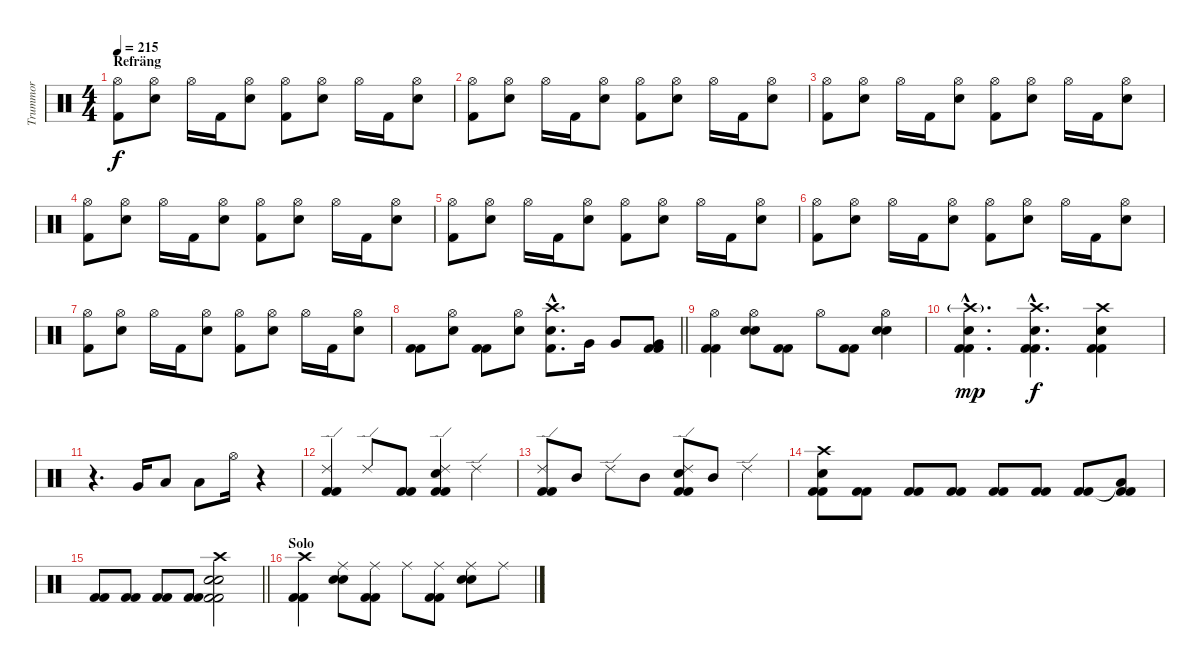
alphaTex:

\track ("Trummor" "Trummor") {instrument percussion}
\staff {score}
\articulation defaults
\ts (4 4)
\section ("" "Refräng")
\tempo 215
\clef neutral
\ks c
("Hi-Hat (open)" "Kick (hit) 2").8{dy f} ("Hi-Hat (open)" "Electric Snare (hit)").8 "Hi-Hat (open)".16 "Kick (hit) 2".16 ("Hi-Hat (open)" "Electric Snare (hit)").8 ("Hi-Hat (open)" "Kick (hit) 2").8 ("Hi-Hat (open)" "Electric Snare (hit)").8 "Hi-Hat (open)".16 "Kick (hit) 2".16 ("Hi-Hat (open)" "Electric Snare (hit)").8 |
("Hi-Hat (open)" "Kick (hit) 2").8 ("Hi-Hat (open)" "Electric Snare (hit)").8 "Hi-Hat (open)".16 "Kick (hit) 2".16 ("Hi-Hat (open)" "Electric Snare (hit)").8 ("Hi-Hat (open)" "Kick (hit) 2").8 ("Hi-Hat (open)" "Electric Snare (hit)").8 "Hi-Hat (open)".16 "Kick (hit) 2".16 ("Hi-Hat (open)" "Electric Snare (hit)").8 |
("Hi-Hat (open)" "Kick (hit) 2").8 ("Hi-Hat (open)" "Electric Snare (hit)").8 "Hi-Hat (open)".16 "Kick (hit) 2".16 ("Hi-Hat (open)" "Electric Snare (hit)").8 ("Hi-Hat (open)" "Kick (hit) 2").8 ("Hi-Hat (open)" "Electric Snare (hit)").8 "Hi-Hat (open)".16 "Kick (hit) 2".16 ("Hi-Hat (open)" "Electric Snare (hit)").8 |
("Hi-Hat (open)" "Kick (hit) 2").8 ("Hi-Hat (open)" "Electric Snare (hit)").8 "Hi-Hat (open)".16 "Kick (hit) 2".16 ("Hi-Hat (open)" "Electric Snare (hit)").8 ("Hi-Hat (open)" "Kick (hit) 2").8 ("Hi-Hat (open)" "Electric Snare (hit)").8 "Hi-Hat (open)".16 "Kick (hit) 2".16 ("Hi-Hat (open)" "Electric Snare (hit)").8 |
("Hi-Hat (open)" "Kick (hit) 2").8 ("Hi-Hat (open)" "Electric Snare (hit)").8 "Hi-Hat (open)".16 "Kick (hit) 2".16 ("Hi-Hat (open)" "Electric Snare (hit)").8 ("Hi-Hat (open)" "Kick (hit) 2").8 ("Hi-Hat (open)" "Electric Snare (hit)").8 "Hi-Hat (open)".16 "Kick (hit) 2".16 ("Hi-Hat (open)" "Electric Snare (hit)").8 |
("Hi-Hat (open)" "Kick (hit) 2").8 ("Hi-Hat (open)" "Electric Snare (hit)").8 "Hi-Hat (open)".16 "Kick (hit) 2".16 ("Hi-Hat (open)" "Electric Snare (hit)").8 ("Hi-Hat (open)" "Kick (hit) 2").8 ("Hi-Hat (open)" "Electric Snare (hit)").8 "Hi-Hat (open)".16 "Kick (hit) 2".16 ("Hi-Hat (open)" "Electric Snare (hit)").8 |
("Hi-Hat (open)" "Kick (hit) 2").8 ("Hi-Hat (open)" "Electric Snare (hit)").8 "Hi-Hat (open)".16 "Kick (hit) 2".16 ("Hi-Hat (open)" "Electric Snare (hit)").8 ("Hi-Hat (open)" "Kick (hit) 2").8 ("Hi-Hat (open)" "Electric Snare (hit)").8 "Hi-Hat (open)".16 "Kick (hit) 2".16 ("Hi-Hat (open)" "Electric Snare (hit)").8 |
\barLineRight lightlight
("Kick (hit) 2" "Kick (hit) 2").8 ("Hi-Hat (open)" "Electric Snare (hit)").8 ("Kick (hit) 2" "Kick (hit) 2").8 ("Hi-Hat (open)" "Electric Snare (hit)").8 ("Crash high (hit)"{hac} "Electric Snare (hit)"{hac} "Kick (hit) 2"{hac}).8{d} "Very Low Tom (hit)".16 "Very Low Tom (hit)".8 ("Very Low Tom (hit)" "Kick (hit) 2" "Kick (hit) 2").8 |
\section ("" "")
("Hi-Hat (open)" "Kick (hit) 2" "Kick (hit) 2").4 ("Hi-Hat (open)" "Electric Snare (hit)" "Electric Snare (hit)").8 ("Kick (hit) 2" "Kick (hit) 2").8 "Hi-Hat (open)".8 ("Kick (hit) 2" "Kick (hit) 2").8 ("Hi-Hat (open)" "Electric Snare (hit)" "Electric Snare (hit)").4 |
("Crash high (hit)"{g hac} "Electric Snare (hit)"{hac} "Kick (hit) 2"{hac} "Kick (hit) 2"{hac}).4{d dy mp} ("Crash high (hit)"{hac pm} "Electric Snare (hit)"{hac} "Kick (hit) 2"{hac} "Kick (hit) 2"{hac}).4{d dy f} ("Crash high (hit)" "Electric Snare (hit)" "Kick (hit) 2" "Kick (hit) 2").4 |
r.4{d} "Very Low Tom (hit)".16 "Low Floor Tom (hit)".8 "Low Tom (hit)".8 "Hi-Hat (open)".16 r.4 |
("Ride (edge) 2" "Kick (hit) 2" "Kick (hit) 2").4 "Ride (edge) 2".8 ("Kick (hit) 2" "Kick (hit) 2").8 ("Ride (edge) 2" "Electric Snare (hit)" "Kick (hit) 2" "Kick (hit) 2").4 "Ride (edge) 2".4 |
("Ride (edge) 2" "Kick (hit) 2" "Kick (hit) 2").8 "Mid Tom (hit)".8 "Ride (edge) 2".8 "Mid Tom (hit)".8 ("Ride (edge) 2" "Electric Snare (hit)" "Kick (hit) 2" "Kick (hit) 2").8 "Mid Tom (hit)".8 "Ride (edge) 2".4 |
("Crash high (hit)" "Electric Snare (hit)" "Kick (hit) 2" "Kick (hit) 2").8 ("Kick (hit) 2" "Kick (hit) 2").8{volume 5} ("Kick (hit) 2" "Kick (hit) 2").8{volume 6} ("Kick (hit) 2" "Kick (hit) 2").8{volume 7} ("Kick (hit) 2" "Kick (hit) 2").8{volume 8} ("Kick (hit) 2" "Kick (hit) 2").8{volume 9} ("Kick (hit) 2" "Kick (hit) 2").8{volume 10} ("Low Tom (hit)"{t} "Kick (hit) 2" "Kick (hit) 2").8 |
\barLineRight lightlight
("Kick (hit) 2" "Kick (hit) 2").8 ("Kick (hit) 2" "Kick (hit) 2").8 ("Kick (hit) 2" "Kick (hit) 2").8 ("Kick (hit) 2" "Kick (hit) 2").8 ("Crash high (hit)" "Electric Snare (hit)" "Electric Snare (hit)" "Kick (hit) 2" "Kick (hit) 2").2 |
\section ("" "Solo")
("Crash high (hit)" "Kick (hit) 2" "Kick (hit) 2").4 ("Ride (middle)" "Electric Snare (hit)" "Electric Snare (hit)").8 ("Ride (middle)" "Kick (hit) 2" "Kick (hit) 2").8 "Ride (middle)".8 ("Ride (middle)" "Kick (hit) 2" "Kick (hit) 2").8 ("Ride (middle)" "Electric Snare (hit)" "Electric Snare (hit)").8 "Ride (middle)".8
